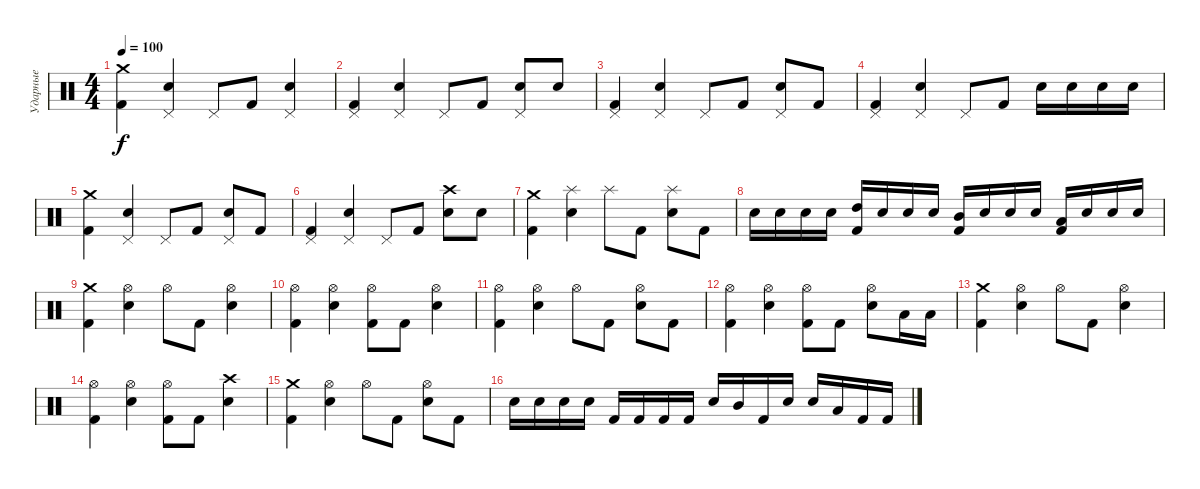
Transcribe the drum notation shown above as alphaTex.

\track ("Ударные" "Ударные") {instrument percussion}
\staff {score}
\articulation defaults
\ts (4 4)
\tempo 100
\clef neutral
\ks c
("Crash medium (hit)" "Kick (hit) 2").4{dy f} ("Pedal Hi-Hat (hit)" "Electric Snare (hit)").4 "Pedal Hi-Hat (hit)".8 "Kick (hit) 2".8 ("Pedal Hi-Hat (hit)" "Electric Snare (hit)").4 |
("Pedal Hi-Hat (hit)" "Kick (hit) 2").4 ("Pedal Hi-Hat (hit)" "Electric Snare (hit)").4 "Pedal Hi-Hat (hit)".8 "Kick (hit) 2".8 ("Pedal Hi-Hat (hit)" "Electric Snare (hit)").8 "Electric Snare (hit)".8 |
("Pedal Hi-Hat (hit)" "Kick (hit) 2").4 ("Pedal Hi-Hat (hit)" "Electric Snare (hit)").4 "Pedal Hi-Hat (hit)".8 "Kick (hit) 2".8 ("Pedal Hi-Hat (hit)" "Electric Snare (hit)").8 "Kick (hit) 2".8 |
("Pedal Hi-Hat (hit)" "Kick (hit) 2").4 ("Pedal Hi-Hat (hit)" "Electric Snare (hit)").4 "Pedal Hi-Hat (hit)".8 "Kick (hit) 2".8 "Electric Snare (hit)".16 "Electric Snare (hit)".16 "Electric Snare (hit)".16 "Electric Snare (hit)".16 |
("Crash medium (hit)" "Kick (hit) 2").4 ("Pedal Hi-Hat (hit)" "Electric Snare (hit)").4 "Pedal Hi-Hat (hit)".8 "Kick (hit) 2".8 ("Pedal Hi-Hat (hit)" "Electric Snare (hit)").8 "Kick (hit) 2".8 |
("Pedal Hi-Hat (hit)" "Kick (hit) 2").4 ("Pedal Hi-Hat (hit)" "Electric Snare (hit)").4 "Pedal Hi-Hat (hit)".8 "Kick (hit) 2".8 ("Crash high (hit)" "Electric Snare (hit)").8 "Electric Snare (hit)".8 |
("Crash medium (hit)" "Kick (hit) 2").4 ("Splash (hit)" "Electric Snare (hit)").4 "Splash (hit)".8 "Kick (hit) 2".8 ("Splash (hit)" "Electric Snare (hit)").8 "Kick (hit) 2".8 |
"Electric Snare (hit)".16 "Electric Snare (hit)".16 "Electric Snare (hit)".16 "Electric Snare (hit)".16 ("High Tom (hit)" "Kick (hit) 2").16 "Electric Snare (hit)".16 "Electric Snare (hit)".16 "Electric Snare (hit)".16 ("Mid Tom (hit)" "Kick (hit) 2").16 "Electric Snare (hit)".16 "Electric Snare (hit)".16 "Electric Snare (hit)".16 ("Low Tom (hit)" "Kick (hit) 2").16 "Electric Snare (hit)".16 "Electric Snare (hit)".16 "Electric Snare (hit)".16 |
("Crash medium (hit)" "Kick (hit) 2").4 ("Hi-Hat (open)" "Electric Snare (hit)").4 "Hi-Hat (open)".8 "Kick (hit) 2".8 ("Hi-Hat (open)" "Electric Snare (hit)").4 |
("Hi-Hat (open)" "Kick (hit) 2").4 ("Hi-Hat (open)" "Electric Snare (hit)").4 ("Hi-Hat (open)" "Kick (hit) 2").8 "Kick (hit) 2".8 ("Hi-Hat (open)" "Electric Snare (hit)").4 |
("Hi-Hat (open)" "Kick (hit) 2").4 ("Hi-Hat (open)" "Electric Snare (hit)").4 "Hi-Hat (open)".8 "Kick (hit) 2".8 ("Hi-Hat (open)" "Electric Snare (hit)").8 "Kick (hit) 2".8 |
("Hi-Hat (open)" "Kick (hit) 2").4 ("Hi-Hat (open)" "Electric Snare (hit)").4 ("Hi-Hat (open)" "Kick (hit) 2").8 "Kick (hit) 2".8 ("Hi-Hat (open)" "Electric Snare (hit)").8 "Low Tom (hit)".16 "Low Tom (hit)".16 |
("Crash medium (hit)" "Kick (hit) 2").4 ("Hi-Hat (open)" "Electric Snare (hit)").4 "Hi-Hat (open)".8 "Kick (hit) 2".8 ("Hi-Hat (open)" "Electric Snare (hit)").4 |
("Hi-Hat (open)" "Kick (hit) 2").4 ("Hi-Hat (open)" "Electric Snare (hit)").4 ("Hi-Hat (open)" "Kick (hit) 2").8 "Kick (hit) 2".8 ("Crash high (hit)" "Electric Snare (hit)").4 |
("Crash medium (hit)" "Kick (hit) 2").4 ("Hi-Hat (open)" "Electric Snare (hit)").4 "Hi-Hat (open)".8 "Kick (hit) 2".8 ("Hi-Hat (open)" "Electric Snare (hit)").8 "Kick (hit) 2".8 |
"Electric Snare (hit)".16 "Electric Snare (hit)".16 "Electric Snare (hit)".16 "Electric Snare (hit)".16 "Kick (hit) 2".16 "Kick (hit) 2".16 "Kick (hit) 2".16 "Kick (hit) 2".16 "Electric Snare (hit)".16 "Mid Tom (hit)".16 "Kick (hit) 2".16 "Electric Snare (hit)".16 "Electric Snare (hit)".16 "Low Tom (hit)".16 "Kick (hit) 2".16 "Kick (hit) 2".16
